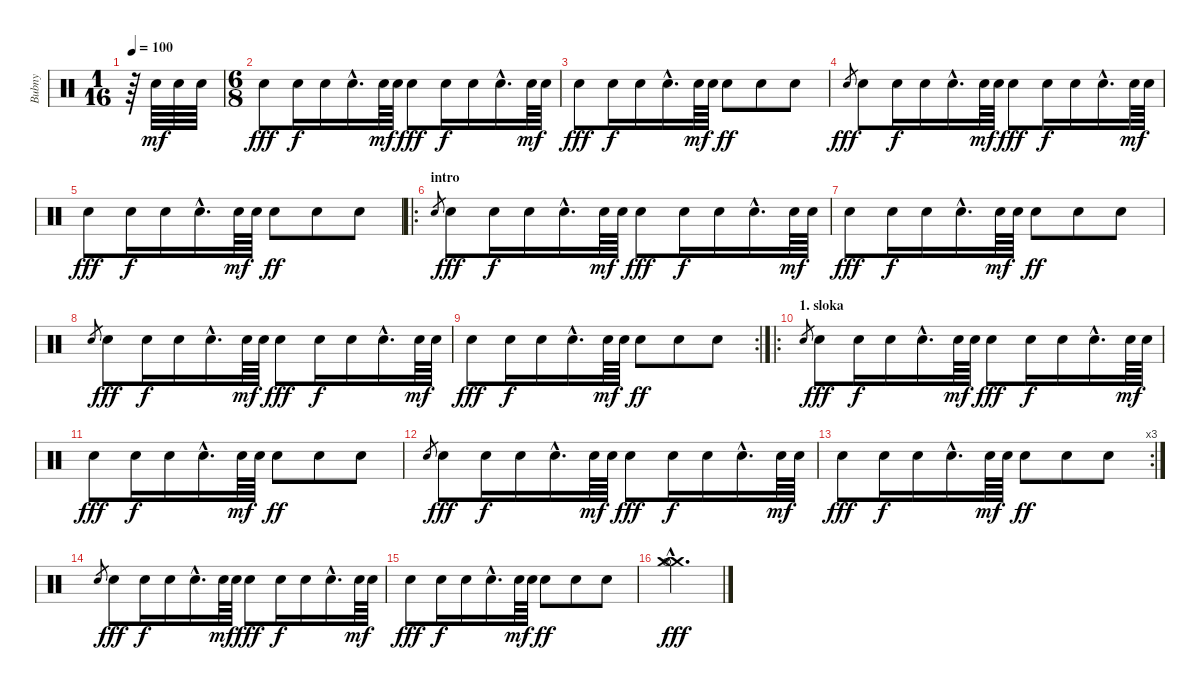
\track ("Bubny" "Bubny") {instrument percussion}
\staff {score}
\articulation defaults
\ts (1 16)
\tempo 100
\clef neutral
\ks c
r.64{dy mf} "Electric Snare (hit)".64 "Electric Snare (hit)".64 "Electric Snare (hit)".64 |
\ts (6 8)
"Electric Snare (hit)".8{dy fff} "Electric Snare (hit)".16{dy f} "Electric Snare (hit)".16 "Electric Snare (hit)"{hac}.16{d} "Electric Snare (hit)".64{dy mf} "Electric Snare (hit)".64 "Electric Snare (hit)".8{dy fff} "Electric Snare (hit)".16{dy f} "Electric Snare (hit)".16 "Electric Snare (hit)"{hac}.16{d} "Electric Snare (hit)".64{dy mf} "Electric Snare (hit)".64 |
"Electric Snare (hit)".8{dy fff} "Electric Snare (hit)".16{dy f} "Electric Snare (hit)".16 "Electric Snare (hit)"{hac}.16{d} "Electric Snare (hit)".64{dy mf} "Electric Snare (hit)".64 "Electric Snare (hit)".8{dy ff} "Electric Snare (hit)".8 "Electric Snare (hit)".8 |
"Electric Snare (hit)".8{gr dy fff} "Electric Snare (hit)".8 "Electric Snare (hit)".16{dy f} "Electric Snare (hit)".16 "Electric Snare (hit)"{hac}.16{d} "Electric Snare (hit)".64{dy mf} "Electric Snare (hit)".64 "Electric Snare (hit)".8{dy fff} "Electric Snare (hit)".16{dy f} "Electric Snare (hit)".16 "Electric Snare (hit)"{hac}.16{d} "Electric Snare (hit)".64{dy mf} "Electric Snare (hit)".64 |
"Electric Snare (hit)".8{dy fff} "Electric Snare (hit)".16{dy f} "Electric Snare (hit)".16 "Electric Snare (hit)"{hac}.16{d} "Electric Snare (hit)".64{dy mf} "Electric Snare (hit)".64 "Electric Snare (hit)".8{dy ff} "Electric Snare (hit)".8 "Electric Snare (hit)".8 |
\ro
\section ("" "intro")
"Electric Snare (hit)".8{gr} "Electric Snare (hit)".8{dy fff} "Electric Snare (hit)".16{dy f} "Electric Snare (hit)".16 "Electric Snare (hit)"{hac}.16{d} "Electric Snare (hit)".64{dy mf} "Electric Snare (hit)".64 "Electric Snare (hit)".8{dy fff} "Electric Snare (hit)".16{dy f} "Electric Snare (hit)".16 "Electric Snare (hit)"{hac}.16{d} "Electric Snare (hit)".64{dy mf} "Electric Snare (hit)".64 |
"Electric Snare (hit)".8{dy fff} "Electric Snare (hit)".16{dy f} "Electric Snare (hit)".16 "Electric Snare (hit)"{hac}.16{d} "Electric Snare (hit)".64{dy mf} "Electric Snare (hit)".64 "Electric Snare (hit)".8{dy ff} "Electric Snare (hit)".8 "Electric Snare (hit)".8 |
"Electric Snare (hit)".8{gr} "Electric Snare (hit)".8{dy fff} "Electric Snare (hit)".16{dy f} "Electric Snare (hit)".16 "Electric Snare (hit)"{hac}.16{d} "Electric Snare (hit)".64{dy mf} "Electric Snare (hit)".64 "Electric Snare (hit)".8{dy fff} "Electric Snare (hit)".16{dy f} "Electric Snare (hit)".16 "Electric Snare (hit)"{hac}.16{d} "Electric Snare (hit)".64{dy mf} "Electric Snare (hit)".64 |
\rc 2 "Electric Snare (hit)".8{dy fff} "Electric Snare (hit)".16{dy f} "Electric Snare (hit)".16 "Electric Snare (hit)"{hac}.16{d} "Electric Snare (hit)".64{dy mf} "Electric Snare (hit)".64 "Electric Snare (hit)".8{dy ff} "Electric Snare (hit)".8 "Electric Snare (hit)".8
|
\ro
\section ("" "1. sloka")
"Electric Snare (hit)".8{gr} "Electric Snare (hit)".8{dy fff} "Electric Snare (hit)".16{dy f} "Electric Snare (hit)".16 "Electric Snare (hit)"{hac}.16{d} "Electric Snare (hit)".64{dy mf} "Electric Snare (hit)".64 "Electric Snare (hit)".8{dy fff} "Electric Snare (hit)".16{dy f} "Electric Snare (hit)".16 "Electric Snare (hit)"{hac}.16{d} "Electric Snare (hit)".64{dy mf} "Electric Snare (hit)".64 |
"Electric Snare (hit)".8{dy fff} "Electric Snare (hit)".16{dy f} "Electric Snare (hit)".16 "Electric Snare (hit)"{hac}.16{d} "Electric Snare (hit)".64{dy mf} "Electric Snare (hit)".64 "Electric Snare (hit)".8{dy ff} "Electric Snare (hit)".8 "Electric Snare (hit)".8 |
"Electric Snare (hit)".8{gr} "Electric Snare (hit)".8{dy fff} "Electric Snare (hit)".16{dy f} "Electric Snare (hit)".16 "Electric Snare (hit)"{hac}.16{d} "Electric Snare (hit)".64{dy mf} "Electric Snare (hit)".64 "Electric Snare (hit)".8{dy fff} "Electric Snare (hit)".16{dy f} "Electric Snare (hit)".16 "Electric Snare (hit)"{hac}.16{d} "Electric Snare (hit)".64{dy mf} "Electric Snare (hit)".64 |
\rc 3 "Electric Snare (hit)".8{dy fff} "Electric Snare (hit)".16{dy f} "Electric Snare (hit)".16 "Electric Snare (hit)"{hac}.16{d} "Electric Snare (hit)".64{dy mf} "Electric Snare (hit)".64 "Electric Snare (hit)".8{dy ff} "Electric Snare (hit)".8 "Electric Snare (hit)".8
|
"Electric Snare (hit)".8{gr} "Electric Snare (hit)".8{dy fff} "Electric Snare (hit)".16{dy f} "Electric Snare (hit)".16 "Electric Snare (hit)"{hac}.16{d} "Electric Snare (hit)".64{dy mf} "Electric Snare (hit)".64 "Electric Snare (hit)".8{dy fff} "Electric Snare (hit)".16{dy f} "Electric Snare (hit)".16 "Electric Snare (hit)"{hac}.16{d} "Electric Snare (hit)".64{dy mf} "Electric Snare (hit)".64 |
"Electric Snare (hit)".8{dy fff} "Electric Snare (hit)".16{dy f} "Electric Snare (hit)".16 "Electric Snare (hit)"{hac}.16{d} "Electric Snare (hit)".64{dy mf} "Electric Snare (hit)".64 "Electric Snare (hit)".8{dy ff} "Electric Snare (hit)".8 "Electric Snare (hit)".8 |
("Crash medium (hit)"{hac} "Crash medium (hit)"{hac} "Hi-Hat (open)"{hac}).2{d dy fff}
